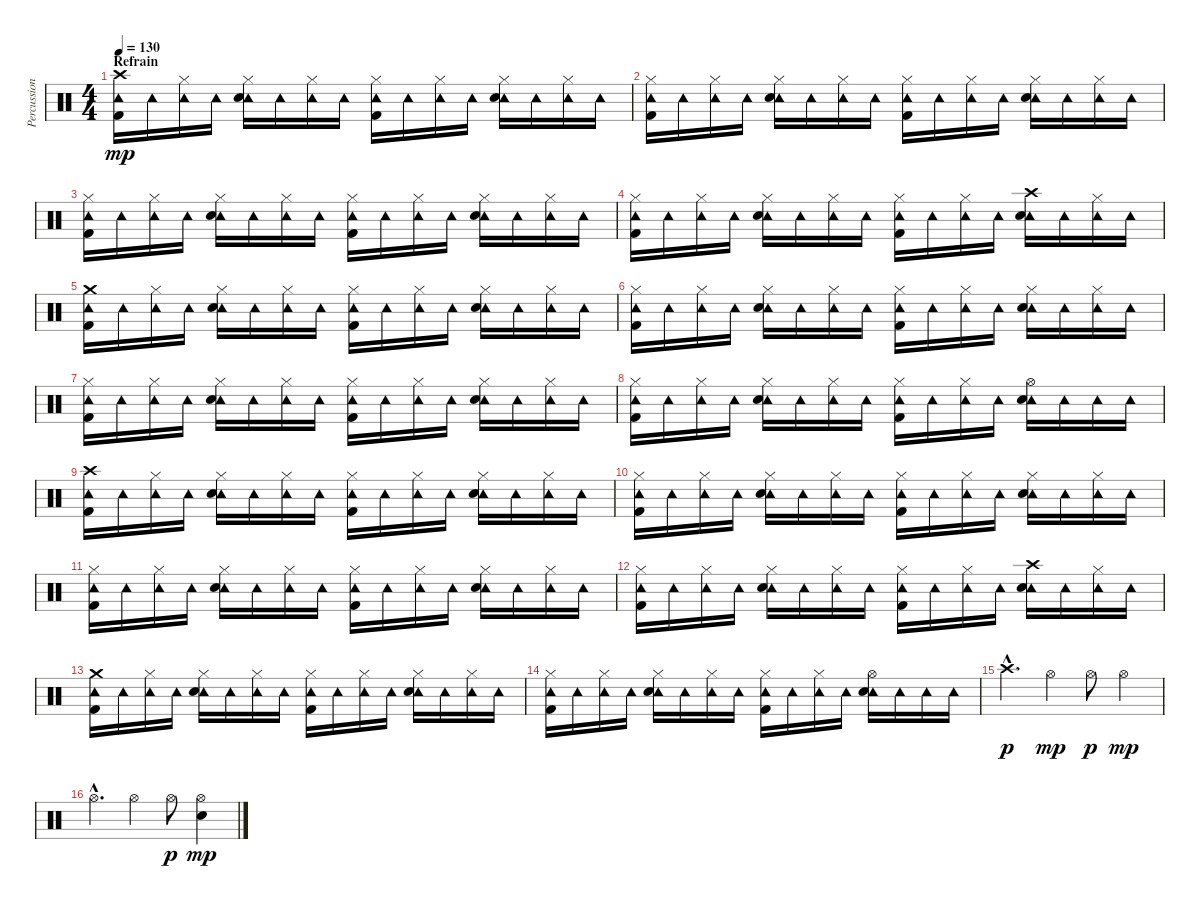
\track ("Percussion (Bela)" "Percussion") {instrument percussion}
\staff {score}
\articulation defaults
\ts (4 4)
\section ("" "Refrain")
\tempo 130
\clef neutral
\ks c
("Crash high (hit)" "Tambourine (hit)" "Kick (hit) 2").16{dy mp} "Tambourine (hit)".16 ("Hi-Hat (closed)" "Tambourine (hit)").16 "Tambourine (hit)".16 ("Hi-Hat (closed)" "Tambourine (hit)" "Electric Snare (hit)").16 "Tambourine (hit)".16 ("Hi-Hat (closed)" "Tambourine (hit)").16 "Tambourine (hit)".16 ("Hi-Hat (closed)" "Tambourine (hit)" "Kick (hit) 2").16 "Tambourine (hit)".16 ("Hi-Hat (closed)" "Tambourine (hit)").16 "Tambourine (hit)".16 ("Hi-Hat (closed)" "Tambourine (hit)" "Electric Snare (hit)").16 "Tambourine (hit)".16 ("Hi-Hat (closed)" "Tambourine (hit)").16 "Tambourine (hit)".16 |
("Hi-Hat (closed)" "Tambourine (hit)" "Kick (hit) 2").16 "Tambourine (hit)".16 ("Hi-Hat (closed)" "Tambourine (hit)").16 "Tambourine (hit)".16 ("Hi-Hat (closed)" "Tambourine (hit)" "Electric Snare (hit)").16 "Tambourine (hit)".16 ("Hi-Hat (closed)" "Tambourine (hit)").16 "Tambourine (hit)".16 ("Hi-Hat (closed)" "Tambourine (hit)" "Kick (hit) 2").16 "Tambourine (hit)".16 ("Hi-Hat (closed)" "Tambourine (hit)").16 "Tambourine (hit)".16 ("Hi-Hat (closed)" "Tambourine (hit)" "Electric Snare (hit)").16 "Tambourine (hit)".16 ("Hi-Hat (closed)" "Tambourine (hit)").16 "Tambourine (hit)".16 |
("Hi-Hat (closed)" "Tambourine (hit)" "Kick (hit) 2").16 "Tambourine (hit)".16 ("Hi-Hat (closed)" "Tambourine (hit)").16 "Tambourine (hit)".16 ("Hi-Hat (closed)" "Tambourine (hit)" "Electric Snare (hit)").16 "Tambourine (hit)".16 ("Hi-Hat (closed)" "Tambourine (hit)").16 "Tambourine (hit)".16 ("Hi-Hat (closed)" "Tambourine (hit)" "Kick (hit) 2").16 "Tambourine (hit)".16 ("Hi-Hat (closed)" "Tambourine (hit)").16 "Tambourine (hit)".16 ("Hi-Hat (closed)" "Tambourine (hit)" "Electric Snare (hit)").16 "Tambourine (hit)".16 ("Hi-Hat (closed)" "Tambourine (hit)").16 "Tambourine (hit)".16 |
("Hi-Hat (closed)" "Tambourine (hit)" "Kick (hit) 2").16 "Tambourine (hit)".16 ("Hi-Hat (closed)" "Tambourine (hit)").16 "Tambourine (hit)".16 ("Hi-Hat (closed)" "Tambourine (hit)" "Electric Snare (hit)").16 "Tambourine (hit)".16 ("Hi-Hat (closed)" "Tambourine (hit)").16 "Tambourine (hit)".16 ("Hi-Hat (closed)" "Tambourine (hit)" "Kick (hit) 2").16 "Tambourine (hit)".16 ("Hi-Hat (closed)" "Tambourine (hit)").16 "Tambourine (hit)".16 ("Crash high (hit)" "Tambourine (hit)" "Electric Snare (hit)").16 "Tambourine (hit)".16 ("Hi-Hat (closed)" "Tambourine (hit)").16 "Tambourine (hit)".16 |
("Crash medium (hit)" "Tambourine (hit)" "Kick (hit) 2").16 "Tambourine (hit)".16 ("Hi-Hat (closed)" "Tambourine (hit)").16 "Tambourine (hit)".16 ("Hi-Hat (closed)" "Tambourine (hit)" "Electric Snare (hit)").16 "Tambourine (hit)".16 ("Hi-Hat (closed)" "Tambourine (hit)").16 "Tambourine (hit)".16 ("Hi-Hat (closed)" "Tambourine (hit)" "Kick (hit) 2").16 "Tambourine (hit)".16 ("Hi-Hat (closed)" "Tambourine (hit)").16 "Tambourine (hit)".16 ("Hi-Hat (closed)" "Tambourine (hit)" "Electric Snare (hit)").16 "Tambourine (hit)".16 ("Hi-Hat (closed)" "Tambourine (hit)").16 "Tambourine (hit)".16 |
("Hi-Hat (closed)" "Tambourine (hit)" "Kick (hit) 2").16 "Tambourine (hit)".16 ("Hi-Hat (closed)" "Tambourine (hit)").16 "Tambourine (hit)".16 ("Hi-Hat (closed)" "Tambourine (hit)" "Electric Snare (hit)").16 "Tambourine (hit)".16 ("Hi-Hat (closed)" "Tambourine (hit)").16 "Tambourine (hit)".16 ("Hi-Hat (closed)" "Tambourine (hit)" "Kick (hit) 2").16 "Tambourine (hit)".16 ("Hi-Hat (closed)" "Tambourine (hit)").16 "Tambourine (hit)".16 ("Hi-Hat (closed)" "Tambourine (hit)" "Electric Snare (hit)").16 "Tambourine (hit)".16 ("Hi-Hat (closed)" "Tambourine (hit)").16 "Tambourine (hit)".16 |
("Hi-Hat (closed)" "Tambourine (hit)" "Kick (hit) 2").16 "Tambourine (hit)".16 ("Hi-Hat (closed)" "Tambourine (hit)").16 "Tambourine (hit)".16 ("Hi-Hat (closed)" "Tambourine (hit)" "Electric Snare (hit)").16 "Tambourine (hit)".16 ("Hi-Hat (closed)" "Tambourine (hit)").16 "Tambourine (hit)".16 ("Hi-Hat (closed)" "Tambourine (hit)" "Kick (hit) 2").16 "Tambourine (hit)".16 ("Hi-Hat (closed)" "Tambourine (hit)").16 "Tambourine (hit)".16 ("Hi-Hat (closed)" "Tambourine (hit)" "Electric Snare (hit)").16 "Tambourine (hit)".16 ("Hi-Hat (closed)" "Tambourine (hit)").16 "Tambourine (hit)".16 |
("Hi-Hat (closed)" "Tambourine (hit)" "Kick (hit) 2").16 "Tambourine (hit)".16 ("Hi-Hat (closed)" "Tambourine (hit)").16 "Tambourine (hit)".16 ("Hi-Hat (closed)" "Tambourine (hit)" "Electric Snare (hit)").16 "Tambourine (hit)".16 ("Hi-Hat (closed)" "Tambourine (hit)").16 "Tambourine (hit)".16 ("Hi-Hat (closed)" "Tambourine (hit)" "Kick (hit) 2").16 "Tambourine (hit)".16 ("Hi-Hat (closed)" "Tambourine (hit)").16 "Tambourine (hit)".16 ("Hi-Hat (open)" "Tambourine (hit)" "Electric Snare (hit)").16 "Tambourine (hit)".16 "Tambourine (hit)".16 "Tambourine (hit)".16 |
("Crash high (hit)" "Tambourine (hit)" "Kick (hit) 2").16 "Tambourine (hit)".16 ("Hi-Hat (closed)" "Tambourine (hit)").16 "Tambourine (hit)".16 ("Hi-Hat (closed)" "Tambourine (hit)" "Electric Snare (hit)").16 "Tambourine (hit)".16 ("Hi-Hat (closed)" "Tambourine (hit)").16 "Tambourine (hit)".16 ("Hi-Hat (closed)" "Tambourine (hit)" "Kick (hit) 2").16 "Tambourine (hit)".16 ("Hi-Hat (closed)" "Tambourine (hit)").16 "Tambourine (hit)".16 ("Hi-Hat (closed)" "Tambourine (hit)" "Electric Snare (hit)").16 "Tambourine (hit)".16 ("Hi-Hat (closed)" "Tambourine (hit)").16 "Tambourine (hit)".16 |
("Hi-Hat (closed)" "Tambourine (hit)" "Kick (hit) 2").16 "Tambourine (hit)".16 ("Hi-Hat (closed)" "Tambourine (hit)").16 "Tambourine (hit)".16 ("Hi-Hat (closed)" "Tambourine (hit)" "Electric Snare (hit)").16 "Tambourine (hit)".16 ("Hi-Hat (closed)" "Tambourine (hit)").16 "Tambourine (hit)".16 ("Hi-Hat (closed)" "Tambourine (hit)" "Kick (hit) 2").16 "Tambourine (hit)".16 ("Hi-Hat (closed)" "Tambourine (hit)").16 "Tambourine (hit)".16 ("Hi-Hat (closed)" "Tambourine (hit)" "Electric Snare (hit)").16 "Tambourine (hit)".16 ("Hi-Hat (closed)" "Tambourine (hit)").16 "Tambourine (hit)".16 |
("Hi-Hat (closed)" "Tambourine (hit)" "Kick (hit) 2").16 "Tambourine (hit)".16 ("Hi-Hat (closed)" "Tambourine (hit)").16 "Tambourine (hit)".16 ("Hi-Hat (closed)" "Tambourine (hit)" "Electric Snare (hit)").16 "Tambourine (hit)".16 ("Hi-Hat (closed)" "Tambourine (hit)").16 "Tambourine (hit)".16 ("Hi-Hat (closed)" "Tambourine (hit)" "Kick (hit) 2").16 "Tambourine (hit)".16 ("Hi-Hat (closed)" "Tambourine (hit)").16 "Tambourine (hit)".16 ("Hi-Hat (closed)" "Tambourine (hit)" "Electric Snare (hit)").16 "Tambourine (hit)".16 ("Hi-Hat (closed)" "Tambourine (hit)").16 "Tambourine (hit)".16 |
("Hi-Hat (closed)" "Tambourine (hit)" "Kick (hit) 2").16 "Tambourine (hit)".16 ("Hi-Hat (closed)" "Tambourine (hit)").16 "Tambourine (hit)".16 ("Hi-Hat (closed)" "Tambourine (hit)" "Electric Snare (hit)").16 "Tambourine (hit)".16 ("Hi-Hat (closed)" "Tambourine (hit)").16 "Tambourine (hit)".16 ("Hi-Hat (closed)" "Tambourine (hit)" "Kick (hit) 2").16 "Tambourine (hit)".16 ("Hi-Hat (closed)" "Tambourine (hit)").16 "Tambourine (hit)".16 ("Crash high (hit)" "Tambourine (hit)" "Electric Snare (hit)").16 "Tambourine (hit)".16 ("Hi-Hat (closed)" "Tambourine (hit)").16 "Tambourine (hit)".16 |
("Crash medium (hit)" "Tambourine (hit)" "Kick (hit) 2").16 "Tambourine (hit)".16 ("Hi-Hat (closed)" "Tambourine (hit)").16 "Tambourine (hit)".16 ("Hi-Hat (closed)" "Tambourine (hit)" "Electric Snare (hit)").16 "Tambourine (hit)".16 ("Hi-Hat (closed)" "Tambourine (hit)").16 "Tambourine (hit)".16 ("Hi-Hat (closed)" "Tambourine (hit)" "Kick (hit) 2").16 "Tambourine (hit)".16 ("Hi-Hat (closed)" "Tambourine (hit)").16 "Tambourine (hit)".16 ("Hi-Hat (closed)" "Tambourine (hit)" "Electric Snare (hit)").16 "Tambourine (hit)".16 ("Hi-Hat (closed)" "Tambourine (hit)").16 "Tambourine (hit)".16 |
("Hi-Hat (closed)" "Tambourine (hit)" "Kick (hit) 2").16 "Tambourine (hit)".16 ("Hi-Hat (closed)" "Tambourine (hit)").16 "Tambourine (hit)".16 ("Hi-Hat (closed)" "Tambourine (hit)" "Electric Snare (hit)").16 "Tambourine (hit)".16 ("Hi-Hat (closed)" "Tambourine (hit)").16 "Tambourine (hit)".16 ("Hi-Hat (closed)" "Tambourine (hit)" "Kick (hit) 2").16 "Tambourine (hit)".16 ("Hi-Hat (closed)" "Tambourine (hit)").16 "Tambourine (hit)".16 ("Hi-Hat (open)" "Tambourine (hit)" "Electric Snare (hit)").16 "Tambourine (hit)".16 "Tambourine (hit)".16 "Tambourine (hit)".16 |
"Crash high (hit)"{hac}.4{d dy p} "Hi-Hat (open)".4{dy mp} "Hi-Hat (open)".8{dy p} "Hi-Hat (open)".4{dy mp} |
"Hi-Hat (open)"{hac}.4{d} "Hi-Hat (open)".4 "Hi-Hat (open)".8{dy p} ("Hi-Hat (open)" "Electric Snare (hit)").4{dy mp}
